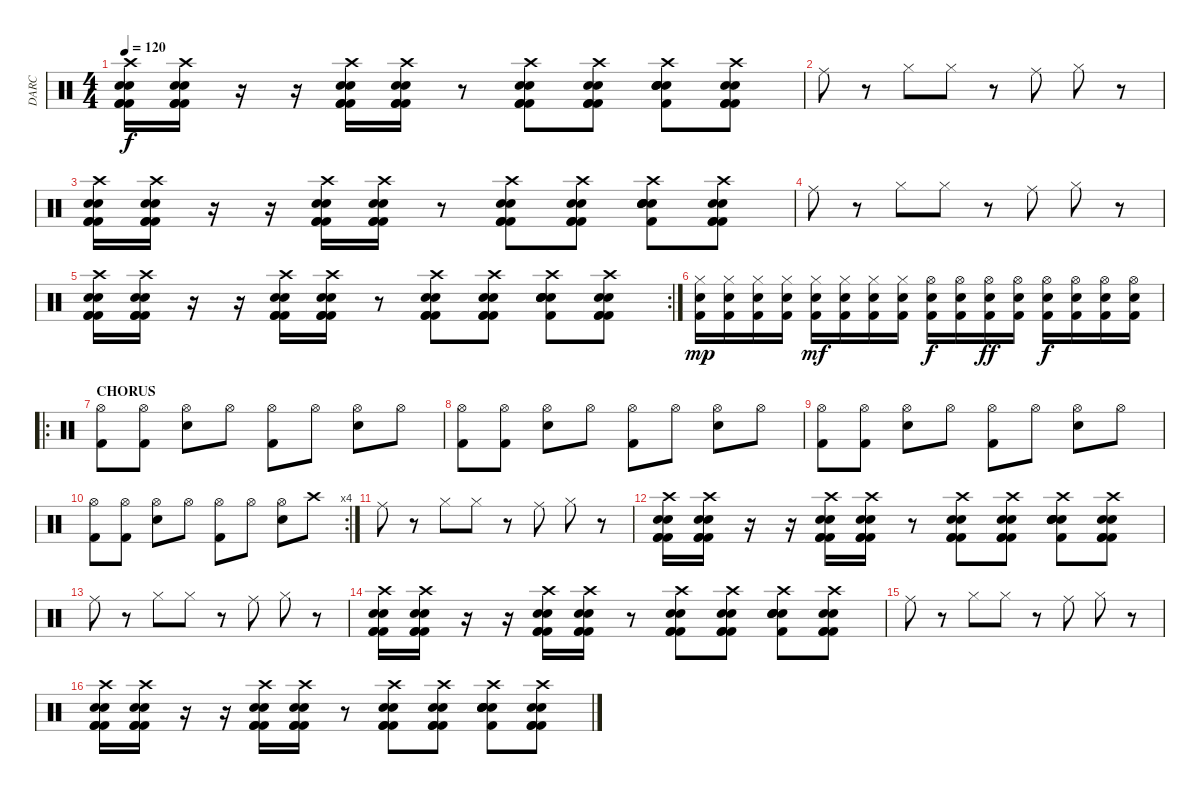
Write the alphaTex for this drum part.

\track ("DARC" "DARC") {instrument percussion}
\staff {score}
\articulation defaults
\ts (4 4)
\tempo 120
\clef neutral
\ks c
("Crash high (hit)" "Kick (hit) 2" "Electric Snare (hit)" "Electric Snare (hit)" "Kick (hit) 2" "Kick (hit) 2").16{dy f} ("Crash high (hit)" "Kick (hit) 2" "Electric Snare (hit)" "Electric Snare (hit)" "Kick (hit) 2" "Kick (hit) 2").16 r.16 r.16 ("Crash high (hit)" "Kick (hit) 2" "Electric Snare (hit)" "Electric Snare (hit)" "Kick (hit) 2" "Kick (hit) 2").16 ("Crash high (hit)" "Kick (hit) 2" "Electric Snare (hit)" "Electric Snare (hit)" "Kick (hit) 2" "Kick (hit) 2").16 r.8 ("Crash high (hit)" "Kick (hit) 2" "Electric Snare (hit)" "Electric Snare (hit)" "Kick (hit) 2" "Kick (hit) 2").8 ("Crash high (hit)" "Kick (hit) 2" "Electric Snare (hit)" "Electric Snare (hit)" "Kick (hit) 2" "Kick (hit) 2").8 ("Crash high (hit)" "Kick (hit) 2" "Electric Snare (hit)" "Electric Snare (hit)" "Electric Snare (hit)" "Electric Snare (hit)").8 ("Crash high (hit)" "Kick (hit) 2" "Electric Snare (hit)" "Electric Snare (hit)" "Kick (hit) 2" "Kick (hit) 2").8 |
"Ride (middle)".8 r.8 "Hi-Hat (closed)".8 "Hi-Hat (closed)".8 r.8 "Ride (middle)".8 "Hi-Hat (closed)".8 r.8 |
("Crash high (hit)" "Kick (hit) 2" "Electric Snare (hit)" "Electric Snare (hit)" "Kick (hit) 2" "Kick (hit) 2").16 ("Crash high (hit)" "Kick (hit) 2" "Electric Snare (hit)" "Electric Snare (hit)" "Kick (hit) 2" "Kick (hit) 2").16 r.16 r.16 ("Crash high (hit)" "Kick (hit) 2" "Electric Snare (hit)" "Electric Snare (hit)" "Kick (hit) 2" "Kick (hit) 2").16 ("Crash high (hit)" "Kick (hit) 2" "Electric Snare (hit)" "Electric Snare (hit)" "Kick (hit) 2" "Kick (hit) 2").16 r.8 ("Crash high (hit)" "Kick (hit) 2" "Electric Snare (hit)" "Electric Snare (hit)" "Kick (hit) 2" "Kick (hit) 2").8 ("Crash high (hit)" "Kick (hit) 2" "Electric Snare (hit)" "Electric Snare (hit)" "Kick (hit) 2" "Kick (hit) 2").8 ("Crash high (hit)" "Kick (hit) 2" "Electric Snare (hit)" "Electric Snare (hit)" "Electric Snare (hit)" "Electric Snare (hit)").8 ("Crash high (hit)" "Kick (hit) 2" "Electric Snare (hit)" "Electric Snare (hit)" "Kick (hit) 2" "Kick (hit) 2").8 |
"Ride (middle)".8 r.8 "Hi-Hat (closed)".8 "Hi-Hat (closed)".8 r.8 "Ride (middle)".8 "Hi-Hat (closed)".8 r.8 |
\rc 2
("Crash high (hit)" "Kick (hit) 2" "Electric Snare (hit)" "Electric Snare (hit)" "Kick (hit) 2" "Kick (hit) 2").16 ("Crash high (hit)" "Kick (hit) 2" "Electric Snare (hit)" "Electric Snare (hit)" "Kick (hit) 2" "Kick (hit) 2").16 r.16 r.16 ("Crash high (hit)" "Kick (hit) 2" "Electric Snare (hit)" "Electric Snare (hit)" "Kick (hit) 2" "Kick (hit) 2").16 ("Crash high (hit)" "Kick (hit) 2" "Electric Snare (hit)" "Electric Snare (hit)" "Kick (hit) 2" "Kick (hit) 2").16 r.8 ("Crash high (hit)" "Kick (hit) 2" "Electric Snare (hit)" "Electric Snare (hit)" "Kick (hit) 2" "Kick (hit) 2").8 ("Crash high (hit)" "Kick (hit) 2" "Electric Snare (hit)" "Electric Snare (hit)" "Kick (hit) 2" "Kick (hit) 2").8 ("Crash high (hit)" "Kick (hit) 2" "Electric Snare (hit)" "Electric Snare (hit)" "Electric Snare (hit)" "Electric Snare (hit)").8 ("Crash high (hit)" "Kick (hit) 2" "Electric Snare (hit)" "Electric Snare (hit)" "Kick (hit) 2" "Kick (hit) 2").8 |
("Hi-Hat (closed)" "Kick (hit) 2" "Electric Snare (hit)").16{dy mp} ("Hi-Hat (closed)" "Kick (hit) 2" "Electric Snare (hit)").16 ("Hi-Hat (closed)" "Kick (hit) 2" "Electric Snare (hit)").16 ("Hi-Hat (closed)" "Kick (hit) 2" "Electric Snare (hit)").16 ("Hi-Hat (closed)" "Kick (hit) 2" "Electric Snare (hit)").16{dy mf} ("Hi-Hat (closed)" "Kick (hit) 2" "Electric Snare (hit)").16 ("Hi-Hat (closed)" "Kick (hit) 2" "Electric Snare (hit)").16 ("Hi-Hat (closed)" "Kick (hit) 2" "Electric Snare (hit)").16 ("Hi-Hat (open)" "Kick (hit) 2" "Electric Snare (hit)").16{dy f} ("Hi-Hat (open)" "Kick (hit) 2" "Electric Snare (hit)").16 ("Hi-Hat (open)" "Kick (hit) 2" "Electric Snare (hit)").16{dy ff} ("Hi-Hat (open)" "Kick (hit) 2" "Electric Snare (hit)").16 ("Hi-Hat (open)" "Kick (hit) 2" "Electric Snare (hit)").16{dy f} ("Hi-Hat (open)" "Kick (hit) 2" "Electric Snare (hit)").16 ("Hi-Hat (open)" "Kick (hit) 2" "Electric Snare (hit)").16 ("Hi-Hat (open)" "Kick (hit) 2" "Electric Snare (hit)").16 |
\ro
\section ("" "CHORUS")
("Hi-Hat (open)" "Kick (hit) 2").8 ("Hi-Hat (open)" "Kick (hit) 2").8 ("Hi-Hat (open)" "Snare (hit) 2").8 "Hi-Hat (open)".8 ("Hi-Hat (open)" "Kick (hit) 2").8 "Hi-Hat (open)".8 ("Hi-Hat (open)" "Snare (hit) 2").8 "Hi-Hat (open)".8 |
("Hi-Hat (open)" "Kick (hit) 2").8 ("Hi-Hat (open)" "Kick (hit) 2").8 ("Hi-Hat (open)" "Snare (hit) 2").8 "Hi-Hat (open)".8 ("Hi-Hat (open)" "Kick (hit) 2").8 "Hi-Hat (open)".8 ("Hi-Hat (open)" "Snare (hit) 2").8 "Hi-Hat (open)".8 |
("Hi-Hat (open)" "Kick (hit) 2").8 ("Hi-Hat (open)" "Kick (hit) 2").8 ("Hi-Hat (open)" "Snare (hit) 2").8 "Hi-Hat (open)".8 ("Hi-Hat (open)" "Kick (hit) 2").8 "Hi-Hat (open)".8 ("Hi-Hat (open)" "Snare (hit) 2").8 "Hi-Hat (open)".8 |
\rc 4
("Hi-Hat (open)" "Kick (hit) 2").8 ("Hi-Hat (open)" "Kick (hit) 2").8 ("Hi-Hat (open)" "Snare (hit) 2").8 "Hi-Hat (open)".8 ("Hi-Hat (open)" "Kick (hit) 2").8 "Hi-Hat (open)".8 ("Hi-Hat (open)" "Snare (hit) 2").8 "Crash high (hit)".8 |
"Ride (middle)".8 r.8 "Hi-Hat (closed)".8 "Hi-Hat (closed)".8 r.8 "Ride (middle)".8 "Hi-Hat (closed)".8 r.8 |
("Crash high (hit)" "Kick (hit) 2" "Electric Snare (hit)" "Electric Snare (hit)" "Kick (hit) 2" "Kick (hit) 2").16 ("Crash high (hit)" "Kick (hit) 2" "Electric Snare (hit)" "Electric Snare (hit)" "Kick (hit) 2" "Kick (hit) 2").16 r.16 r.16 ("Crash high (hit)" "Kick (hit) 2" "Electric Snare (hit)" "Electric Snare (hit)" "Kick (hit) 2" "Kick (hit) 2").16 ("Crash high (hit)" "Kick (hit) 2" "Electric Snare (hit)" "Electric Snare (hit)" "Kick (hit) 2" "Kick (hit) 2").16 r.8 ("Crash high (hit)" "Kick (hit) 2" "Electric Snare (hit)" "Electric Snare (hit)" "Kick (hit) 2" "Kick (hit) 2").8 ("Crash high (hit)" "Kick (hit) 2" "Electric Snare (hit)" "Electric Snare (hit)" "Kick (hit) 2" "Kick (hit) 2").8 ("Crash high (hit)" "Kick (hit) 2" "Electric Snare (hit)" "Electric Snare (hit)" "Electric Snare (hit)" "Electric Snare (hit)").8 ("Crash high (hit)" "Kick (hit) 2" "Electric Snare (hit)" "Electric Snare (hit)" "Kick (hit) 2" "Kick (hit) 2").8 |
"Ride (middle)".8 r.8 "Hi-Hat (closed)".8 "Hi-Hat (closed)".8 r.8 "Ride (middle)".8 "Hi-Hat (closed)".8 r.8 |
("Crash high (hit)" "Kick (hit) 2" "Electric Snare (hit)" "Electric Snare (hit)" "Kick (hit) 2" "Kick (hit) 2").16 ("Crash high (hit)" "Kick (hit) 2" "Electric Snare (hit)" "Electric Snare (hit)" "Kick (hit) 2" "Kick (hit) 2").16 r.16 r.16 ("Crash high (hit)" "Kick (hit) 2" "Electric Snare (hit)" "Electric Snare (hit)" "Kick (hit) 2" "Kick (hit) 2").16 ("Crash high (hit)" "Kick (hit) 2" "Electric Snare (hit)" "Electric Snare (hit)" "Kick (hit) 2" "Kick (hit) 2").16 r.8 ("Crash high (hit)" "Kick (hit) 2" "Electric Snare (hit)" "Electric Snare (hit)" "Kick (hit) 2" "Kick (hit) 2").8 ("Crash high (hit)" "Kick (hit) 2" "Electric Snare (hit)" "Electric Snare (hit)" "Kick (hit) 2" "Kick (hit) 2").8 ("Crash high (hit)" "Kick (hit) 2" "Electric Snare (hit)" "Electric Snare (hit)" "Electric Snare (hit)" "Electric Snare (hit)").8 ("Crash high (hit)" "Kick (hit) 2" "Electric Snare (hit)" "Electric Snare (hit)" "Kick (hit) 2" "Kick (hit) 2").8 |
"Ride (middle)".8 r.8 "Hi-Hat (closed)".8 "Hi-Hat (closed)".8 r.8 "Ride (middle)".8 "Hi-Hat (closed)".8 r.8 |
("Crash high (hit)" "Kick (hit) 2" "Electric Snare (hit)" "Electric Snare (hit)" "Kick (hit) 2" "Kick (hit) 2").16 ("Crash high (hit)" "Kick (hit) 2" "Electric Snare (hit)" "Electric Snare (hit)" "Kick (hit) 2" "Kick (hit) 2").16 r.16 r.16 ("Crash high (hit)" "Kick (hit) 2" "Electric Snare (hit)" "Electric Snare (hit)" "Kick (hit) 2" "Kick (hit) 2").16 ("Crash high (hit)" "Kick (hit) 2" "Electric Snare (hit)" "Electric Snare (hit)" "Kick (hit) 2" "Kick (hit) 2").16 r.8 ("Crash high (hit)" "Kick (hit) 2" "Electric Snare (hit)" "Electric Snare (hit)" "Kick (hit) 2" "Kick (hit) 2").8 ("Crash high (hit)" "Kick (hit) 2" "Electric Snare (hit)" "Electric Snare (hit)" "Kick (hit) 2" "Kick (hit) 2").8 ("Crash high (hit)" "Kick (hit) 2" "Electric Snare (hit)" "Electric Snare (hit)" "Electric Snare (hit)" "Electric Snare (hit)").8 ("Crash high (hit)" "Kick (hit) 2" "Electric Snare (hit)" "Electric Snare (hit)" "Kick (hit) 2" "Kick (hit) 2").8
